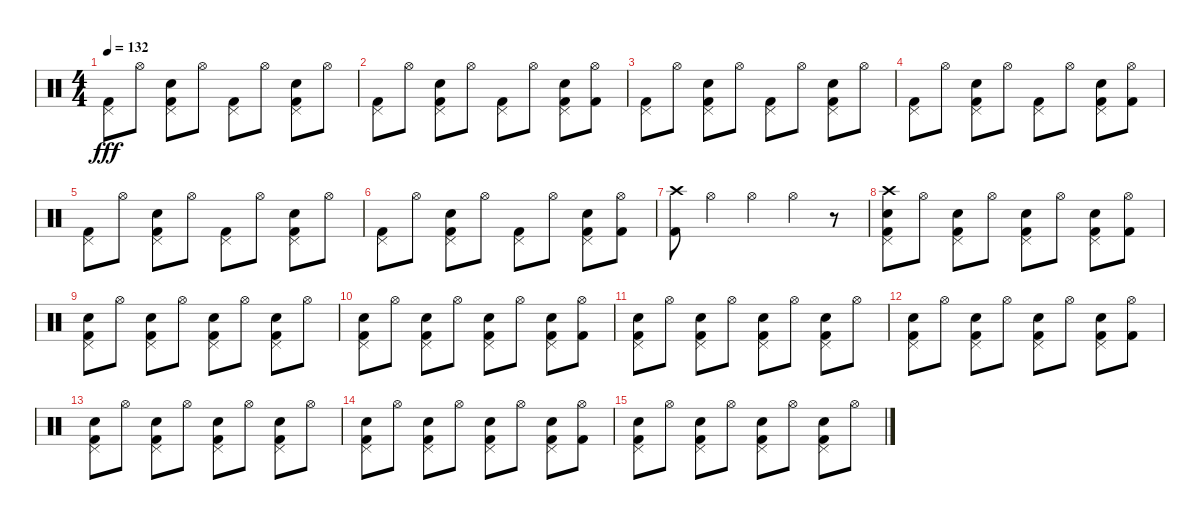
\track "" {instrument percussion}
\staff {score}
\articulation defaults
\ts (4 4)
\tempo 132
\clef neutral
\ks c
("Pedal Hi-Hat (hit)" "Kick (hit) 2").8{dy fff} "Hi-Hat (open)".8 ("Pedal Hi-Hat (hit)" "Snare (hit) 2" "Kick (hit) 2").8 "Hi-Hat (open)".8 ("Pedal Hi-Hat (hit)" "Kick (hit) 2").8 "Hi-Hat (open)".8 ("Pedal Hi-Hat (hit)" "Snare (hit) 2" "Kick (hit) 2").8 "Hi-Hat (open)".8 |
("Pedal Hi-Hat (hit)" "Kick (hit) 2").8 "Hi-Hat (open)".8 ("Pedal Hi-Hat (hit)" "Snare (hit) 2" "Kick (hit) 2").8 "Hi-Hat (open)".8 ("Pedal Hi-Hat (hit)" "Kick (hit) 2").8 "Hi-Hat (open)".8 ("Pedal Hi-Hat (hit)" "Snare (hit) 2" "Kick (hit) 2").8 ("Hi-Hat (open)" "Kick (hit) 2").8 |
("Pedal Hi-Hat (hit)" "Kick (hit) 2").8 "Hi-Hat (open)".8 ("Pedal Hi-Hat (hit)" "Snare (hit) 2" "Kick (hit) 2").8 "Hi-Hat (open)".8 ("Pedal Hi-Hat (hit)" "Kick (hit) 2").8 "Hi-Hat (open)".8 ("Pedal Hi-Hat (hit)" "Snare (hit) 2" "Kick (hit) 2").8 "Hi-Hat (open)".8 |
("Pedal Hi-Hat (hit)" "Kick (hit) 2").8 "Hi-Hat (open)".8 ("Pedal Hi-Hat (hit)" "Snare (hit) 2" "Kick (hit) 2").8 "Hi-Hat (open)".8 ("Pedal Hi-Hat (hit)" "Kick (hit) 2").8 "Hi-Hat (open)".8 ("Pedal Hi-Hat (hit)" "Snare (hit) 2" "Kick (hit) 2").8 ("Hi-Hat (open)" "Kick (hit) 2").8 |
("Pedal Hi-Hat (hit)" "Kick (hit) 2").8 "Hi-Hat (open)".8 ("Pedal Hi-Hat (hit)" "Snare (hit) 2" "Kick (hit) 2").8 "Hi-Hat (open)".8 ("Pedal Hi-Hat (hit)" "Kick (hit) 2").8 "Hi-Hat (open)".8 ("Pedal Hi-Hat (hit)" "Snare (hit) 2" "Kick (hit) 2").8 "Hi-Hat (open)".8 |
("Pedal Hi-Hat (hit)" "Kick (hit) 2").8 "Hi-Hat (open)".8 ("Pedal Hi-Hat (hit)" "Snare (hit) 2" "Kick (hit) 2").8 "Hi-Hat (open)".8 ("Pedal Hi-Hat (hit)" "Kick (hit) 2").8 "Hi-Hat (open)".8 ("Pedal Hi-Hat (hit)" "Snare (hit) 2" "Kick (hit) 2").8 ("Hi-Hat (open)" "Kick (hit) 2").8 |
("Crash high (hit)" "Kick (hit) 2").8 "Hi-Hat (open)".4 "Hi-Hat (open)".4 "Hi-Hat (open)".4 r.8 |
("Crash high (hit)" "Pedal Hi-Hat (hit)" "Snare (hit) 2" "Kick (hit) 2").8 "Hi-Hat (open)".8 ("Pedal Hi-Hat (hit)" "Snare (hit) 2" "Kick (hit) 2").8 "Hi-Hat (open)".8 ("Pedal Hi-Hat (hit)" "Snare (hit) 2" "Kick (hit) 2").8 "Hi-Hat (open)".8 ("Pedal Hi-Hat (hit)" "Snare (hit) 2" "Kick (hit) 2").8 ("Hi-Hat (open)" "Kick (hit) 2").8 |
("Pedal Hi-Hat (hit)" "Snare (hit) 2" "Kick (hit) 2").8 "Hi-Hat (open)".8 ("Pedal Hi-Hat (hit)" "Snare (hit) 2" "Kick (hit) 2").8 "Hi-Hat (open)".8 ("Pedal Hi-Hat (hit)" "Snare (hit) 2" "Kick (hit) 2").8 "Hi-Hat (open)".8 ("Pedal Hi-Hat (hit)" "Snare (hit) 2" "Kick (hit) 2").8 "Hi-Hat (open)".8 |
("Pedal Hi-Hat (hit)" "Snare (hit) 2" "Kick (hit) 2").8 "Hi-Hat (open)".8 ("Pedal Hi-Hat (hit)" "Snare (hit) 2" "Kick (hit) 2").8 "Hi-Hat (open)".8 ("Pedal Hi-Hat (hit)" "Snare (hit) 2" "Kick (hit) 2").8 "Hi-Hat (open)".8 ("Pedal Hi-Hat (hit)" "Snare (hit) 2" "Kick (hit) 2").8 ("Hi-Hat (open)" "Kick (hit) 2").8 |
("Pedal Hi-Hat (hit)" "Snare (hit) 2" "Kick (hit) 2").8 "Hi-Hat (open)".8 ("Pedal Hi-Hat (hit)" "Snare (hit) 2" "Kick (hit) 2").8 "Hi-Hat (open)".8 ("Pedal Hi-Hat (hit)" "Snare (hit) 2" "Kick (hit) 2").8 "Hi-Hat (open)".8 ("Pedal Hi-Hat (hit)" "Snare (hit) 2" "Kick (hit) 2").8 "Hi-Hat (open)".8 |
("Pedal Hi-Hat (hit)" "Snare (hit) 2" "Kick (hit) 2").8 "Hi-Hat (open)".8 ("Pedal Hi-Hat (hit)" "Snare (hit) 2" "Kick (hit) 2").8 "Hi-Hat (open)".8 ("Pedal Hi-Hat (hit)" "Snare (hit) 2" "Kick (hit) 2").8 "Hi-Hat (open)".8 ("Pedal Hi-Hat (hit)" "Snare (hit) 2" "Kick (hit) 2").8 ("Hi-Hat (open)" "Kick (hit) 2").8 |
("Pedal Hi-Hat (hit)" "Snare (hit) 2" "Kick (hit) 2").8 "Hi-Hat (open)".8 ("Pedal Hi-Hat (hit)" "Snare (hit) 2" "Kick (hit) 2").8 "Hi-Hat (open)".8 ("Pedal Hi-Hat (hit)" "Snare (hit) 2" "Kick (hit) 2").8 "Hi-Hat (open)".8 ("Pedal Hi-Hat (hit)" "Snare (hit) 2" "Kick (hit) 2").8 "Hi-Hat (open)".8 |
("Pedal Hi-Hat (hit)" "Snare (hit) 2" "Kick (hit) 2").8 "Hi-Hat (open)".8 ("Pedal Hi-Hat (hit)" "Snare (hit) 2" "Kick (hit) 2").8 "Hi-Hat (open)".8 ("Pedal Hi-Hat (hit)" "Snare (hit) 2" "Kick (hit) 2").8 "Hi-Hat (open)".8 ("Pedal Hi-Hat (hit)" "Snare (hit) 2" "Kick (hit) 2").8 ("Hi-Hat (open)" "Kick (hit) 2").8 |
("Pedal Hi-Hat (hit)" "Snare (hit) 2" "Kick (hit) 2").8 "Hi-Hat (open)".8 ("Pedal Hi-Hat (hit)" "Snare (hit) 2" "Kick (hit) 2").8 "Hi-Hat (open)".8 ("Pedal Hi-Hat (hit)" "Snare (hit) 2" "Kick (hit) 2").8 "Hi-Hat (open)".8 ("Pedal Hi-Hat (hit)" "Snare (hit) 2" "Kick (hit) 2").8 "Hi-Hat (open)".8
